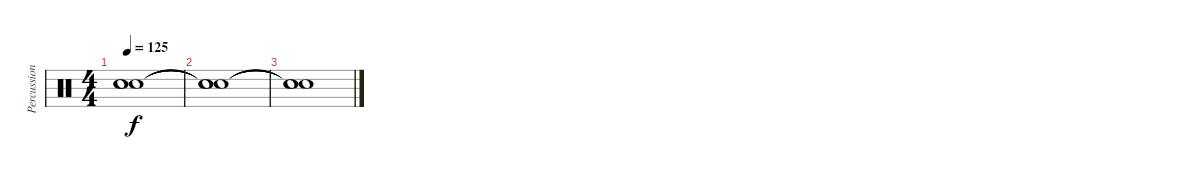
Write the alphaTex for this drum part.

\track ("Percussion" "Percussion") {instrument percussion}
\staff {score}
\articulation defaults
\ts (4 4)
\tempo 125
\clef neutral
\ks c
("Snare (hit)"{t} "Snare (hit)"{t} "Snare (hit)"{t}).1{dy f} |
("Snare (hit)"{t} "Snare (hit)"{t} "Snare (hit)"{t}).1 |
("Snare (hit)"{t} "Snare (hit)"{t} "Snare (hit)"{t}).1
